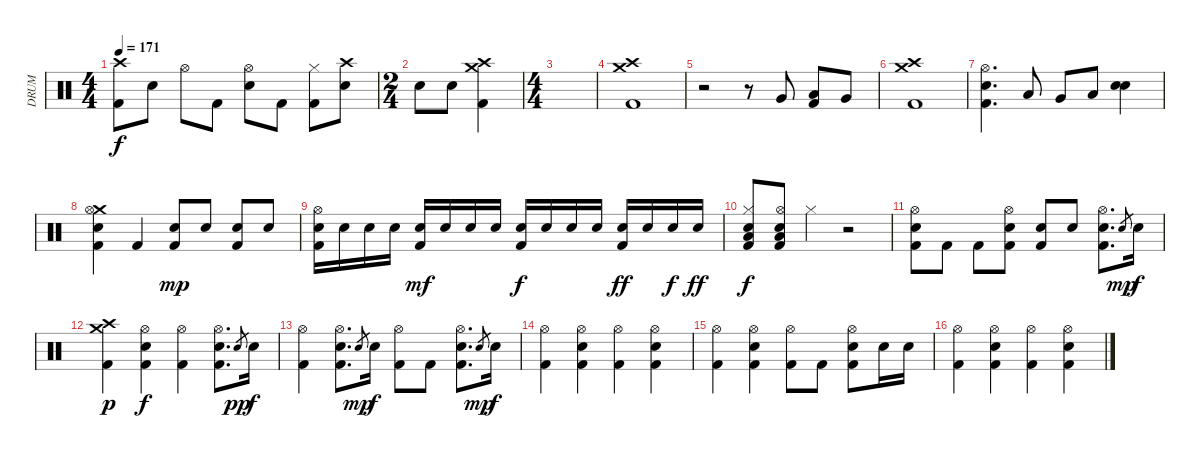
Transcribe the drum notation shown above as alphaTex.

\track ("DRUM" "DRUM") {instrument percussion}
\staff {score}
\articulation defaults
\ts (4 4)
\tempo 171
\clef neutral
\ks c
("Crash high (hit)" "Kick (hit) 2").8{dy f} "Electric Snare (hit)".8 "Hi-Hat (open)".8 "Kick (hit) 2".8 ("Hi-Hat (open)" "Electric Snare (hit)").8 "Kick (hit) 2".8 ("Hi-Hat (closed)" "Kick (hit) 2").8 ("Crash high (hit)" "Electric Snare (hit)").8 |
\ts (2 4)
"Electric Snare (hit)".8 "Electric Snare (hit)".8 ("Crash high (hit)" "Crash medium (hit)" "Kick (hit) 2").4 |
\ts (4 4)
|
("Crash medium (hit)" "Crash high (hit)" "Kick (hit) 2").1 |
r.2 r.8 "Very Low Tom (hit)".8 ("Low Floor Tom (hit)" "Kick (hit) 2").8 "Very Low Tom (hit)".8 |
("Crash medium (hit)" "Crash high (hit)" "Kick (hit) 2").1 |
("Hi-Hat (open)" "Electric Snare (hit)" "Kick (hit) 2").4{d} "Low Tom (hit)".8 "Very Low Tom (hit)".8 "Low Tom (hit)".8 ("Electric Snare (hit)" "Electric Snare (hit)").4{bd 480} |
("Crash medium (hit)" "Hi-Hat (open)" "Electric Snare (hit)" "Kick (hit) 2").4 "Kick (hit) 2".4 ("Electric Snare (hit)" "Kick (hit) 2").8{dy mp} "Electric Snare (hit)".8 ("Electric Snare (hit)" "Kick (hit) 2").8 "Electric Snare (hit)".8 |
("Hi-Hat (open)" "Electric Snare (hit)" "Kick (hit) 2").16 "Electric Snare (hit)".16 "Electric Snare (hit)".16 "Electric Snare (hit)".16 ("Electric Snare (hit)" "Kick (hit) 2").16{dy mf} "Electric Snare (hit)".16 "Electric Snare (hit)".16 "Electric Snare (hit)".16 ("Electric Snare (hit)" "Kick (hit) 2").16{dy f} "Electric Snare (hit)".16 "Electric Snare (hit)".16 "Electric Snare (hit)".16 ("Electric Snare (hit)" "Kick (hit) 2").16{dy ff} "Electric Snare (hit)".16 "Electric Snare (hit)".16{dy f} "Electric Snare (hit)".16{dy ff} |
("Hi-Hat (closed)" "Electric Snare (hit)" "Low Floor Tom (hit)" "Kick (hit) 2").8{dy f} ("Hi-Hat (open)" "Electric Snare (hit)" "Low Floor Tom (hit)" "Kick (hit) 2").8 "Hi-Hat (closed)".4 r.2 |
("Hi-Hat (open)" "Electric Snare (hit)" "Kick (hit) 2").8 "Kick (hit) 2".8 "Kick (hit) 2".8 ("Hi-Hat (open)" "Electric Snare (hit)" "Kick (hit) 2").8 ("Electric Snare (hit)" "Kick (hit) 2").8 "Electric Snare (hit)".8 ("Hi-Hat (open)" "Electric Snare (hit)" "Kick (hit) 2").8{d} "Electric Snare (hit)".8{gr dy mp} "Electric Snare (hit)".16{dy f} |
("Crash high (hit)" "Crash medium (hit)" "Kick (hit) 2").4{dy p} ("Hi-Hat (open)" "Electric Snare (hit)" "Kick (hit) 2").4{dy f} ("Hi-Hat (open)" "Kick (hit) 2").4 ("Hi-Hat (open)" "Electric Snare (hit)" "Kick (hit) 2").8{d} "Electric Snare (hit)".8{gr dy pp} "Electric Snare (hit)".16{dy f} |
("Hi-Hat (open)" "Kick (hit) 2").4 ("Hi-Hat (open)" "Electric Snare (hit)" "Kick (hit) 2").8{d} "Electric Snare (hit)".8{gr dy mp} "Electric Snare (hit)".16{dy f} ("Hi-Hat (open)" "Kick (hit) 2").8 "Kick (hit) 2".8 ("Hi-Hat (open)" "Electric Snare (hit)" "Kick (hit) 2").8{d} "Electric Snare (hit)".8{gr dy mp} "Electric Snare (hit)".16{dy f} |
("Hi-Hat (open)" "Kick (hit) 2").4 ("Hi-Hat (open)" "Electric Snare (hit)" "Kick (hit) 2").4 ("Hi-Hat (open)" "Kick (hit) 2").4 ("Hi-Hat (open)" "Electric Snare (hit)" "Kick (hit) 2").4 |
("Hi-Hat (open)" "Kick (hit) 2").4 ("Hi-Hat (open)" "Electric Snare (hit)" "Kick (hit) 2").4 ("Hi-Hat (open)" "Kick (hit) 2").8 "Kick (hit) 2".8 ("Hi-Hat (open)" "Electric Snare (hit)" "Kick (hit) 2").8 "Electric Snare (hit)".16 "Electric Snare (hit)".16 |
("Hi-Hat (open)" "Kick (hit) 2").4 ("Hi-Hat (open)" "Electric Snare (hit)" "Kick (hit) 2").4 ("Hi-Hat (open)" "Kick (hit) 2").4 ("Hi-Hat (open)" "Electric Snare (hit)" "Kick (hit) 2").4
